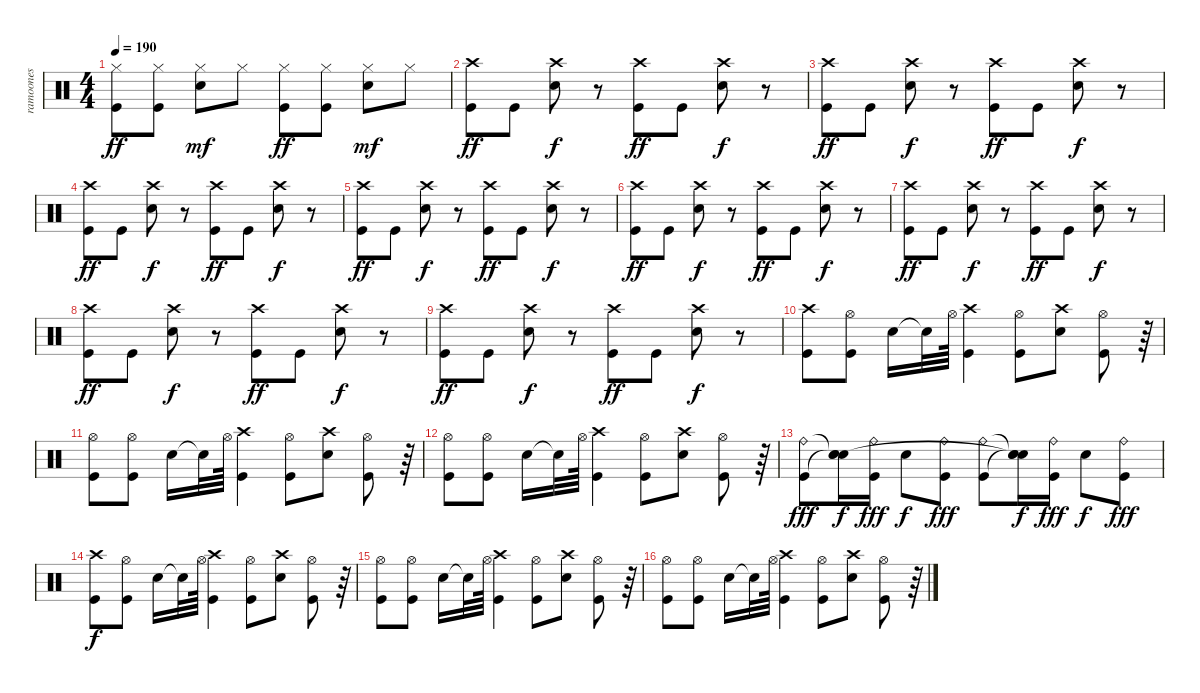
\track ("ramoones" "ramoones") {instrument percussion}
\staff {score}
\articulation defaults
\ts (4 4)
\tempo 190
\clef neutral
\ks c
("Hi-Hat (closed)" "Kick (hit)").8{dy ff} ("Hi-Hat (closed)" "Kick (hit)").8 ("Hi-Hat (closed)" "Electric Snare (hit)").8{dy mf} "Hi-Hat (closed)".8 ("Hi-Hat (closed)" "Kick (hit)").8{dy ff} ("Hi-Hat (closed)" "Kick (hit)").8 ("Hi-Hat (closed)" "Electric Snare (hit)").8{dy mf} "Hi-Hat (closed)".8 |
("Crash high (hit)" "Kick (hit)").8{dy ff} "Kick (hit)".8 ("Crash high (hit)" "Electric Snare (hit)").8{dy f} r.8 ("Crash high (hit)" "Kick (hit)").8{dy ff} "Kick (hit)".8 ("Crash high (hit)" "Electric Snare (hit)").8{dy f} r.8 |
("Crash high (hit)" "Kick (hit)").8{dy ff} "Kick (hit)".8 ("Crash high (hit)" "Electric Snare (hit)").8{dy f} r.8 ("Crash high (hit)" "Kick (hit)").8{dy ff} "Kick (hit)".8 ("Crash high (hit)" "Electric Snare (hit)").8{dy f} r.8 |
("Crash high (hit)" "Kick (hit)").8{dy ff} "Kick (hit)".8 ("Crash high (hit)" "Electric Snare (hit)").8{dy f} r.8 ("Crash high (hit)" "Kick (hit)").8{dy ff} "Kick (hit)".8 ("Crash high (hit)" "Electric Snare (hit)").8{dy f} r.8 |
("Crash high (hit)" "Kick (hit)").8{dy ff} "Kick (hit)".8 ("Crash high (hit)" "Electric Snare (hit)").8{dy f} r.8 ("Crash high (hit)" "Kick (hit)").8{dy ff} "Kick (hit)".8 ("Crash high (hit)" "Electric Snare (hit)").8{dy f} r.8 |
("Crash high (hit)" "Kick (hit)").8{dy ff} "Kick (hit)".8 ("Crash high (hit)" "Electric Snare (hit)").8{dy f} r.8 ("Crash high (hit)" "Kick (hit)").8{dy ff} "Kick (hit)".8 ("Crash high (hit)" "Electric Snare (hit)").8{dy f} r.8 |
("Crash high (hit)" "Kick (hit)").8{dy ff} "Kick (hit)".8 ("Crash high (hit)" "Electric Snare (hit)").8{dy f} r.8 ("Crash high (hit)" "Kick (hit)").8{dy ff} "Kick (hit)".8 ("Crash high (hit)" "Electric Snare (hit)").8{dy f} r.8 |
("Crash high (hit)" "Kick (hit)").8{dy ff} "Kick (hit)".8 ("Crash high (hit)" "Electric Snare (hit)").8{dy f} r.8 ("Crash high (hit)" "Kick (hit)").8{dy ff} "Kick (hit)".8 ("Crash high (hit)" "Electric Snare (hit)").8{dy f} r.8 |
("Crash high (hit)" "Kick (hit)").8{dy ff} "Kick (hit)".8 ("Crash high (hit)" "Electric Snare (hit)").8{dy f} r.8 ("Crash high (hit)" "Kick (hit)").8{dy ff} "Kick (hit)".8 ("Crash high (hit)" "Electric Snare (hit)").8{dy f} r.8 |
("Crash high (hit)" "Kick (hit)").8 ("Hi-Hat (open)" "Kick (hit)").8 "Electric Snare (hit)".16 "Snare (hit)"{t}.32 "Hi-Hat (open)".64 ("Crash high (hit)" "Kick (hit)").4 ("Hi-Hat (open)" "Kick (hit)").8 ("Crash high (hit)" "Electric Snare (hit)").8 ("Hi-Hat (open)" "Kick (hit)").8 r.64 |
("Hi-Hat (open)" "Kick (hit)").8 ("Hi-Hat (open)" "Kick (hit)").8 "Electric Snare (hit)".16 "Snare (hit)"{t}.32 "Hi-Hat (open)".64 ("Crash high (hit)" "Kick (hit)").4 ("Hi-Hat (open)" "Kick (hit)").8 ("Crash high (hit)" "Electric Snare (hit)").8 ("Hi-Hat (open)" "Kick (hit)").8 r.64 |
("Hi-Hat (open)" "Kick (hit)").8 ("Hi-Hat (open)" "Kick (hit)").8 "Electric Snare (hit)".16 "Snare (hit)"{t}.32 "Hi-Hat (open)".64 ("Crash high (hit)" "Kick (hit)").4 ("Hi-Hat (open)" "Kick (hit)").8 ("Crash high (hit)" "Electric Snare (hit)").8 ("Hi-Hat (open)" "Kick (hit)").8 r.64 |
("Ride (bell)" "Kick (hit)").8{dy fff} ("Snare (hit)"{t} "Snare (hit)"{t} "Snare (hit)").16{dy f} ("Ride (bell)" "Kick (hit)").16{dy fff} "Electric Snare (hit)".8{dy f} ("Ride (bell)" "Kick (hit)").8{dy fff} ("Ride (bell)" "Kick (hit)").8 ("Snare (hit)"{t} "Snare (hit)"{t} "Snare (hit)"{t}).16{dy f} ("Ride (bell)" "Kick (hit)").16{dy fff} "Electric Snare (hit)".8{dy f} ("Ride (bell)" "Kick (hit)").8{dy fff} |
("Crash high (hit)" "Kick (hit)").8{dy f} ("Hi-Hat (open)" "Kick (hit)").8 "Electric Snare (hit)".16 "Snare (hit)"{t}.32 "Hi-Hat (open)".64 ("Crash high (hit)" "Kick (hit)").4 ("Hi-Hat (open)" "Kick (hit)").8 ("Crash high (hit)" "Electric Snare (hit)").8 ("Hi-Hat (open)" "Kick (hit)").8 r.64 |
("Hi-Hat (open)" "Kick (hit)").8 ("Hi-Hat (open)" "Kick (hit)").8 "Electric Snare (hit)".16 "Snare (hit)"{t}.32 "Hi-Hat (open)".64 ("Crash high (hit)" "Kick (hit)").4 ("Hi-Hat (open)" "Kick (hit)").8 ("Crash high (hit)" "Electric Snare (hit)").8 ("Hi-Hat (open)" "Kick (hit)").8 r.64 |
("Hi-Hat (open)" "Kick (hit)").8 ("Hi-Hat (open)" "Kick (hit)").8 "Electric Snare (hit)".16 "Snare (hit)"{t}.32 "Hi-Hat (open)".64 ("Crash high (hit)" "Kick (hit)").4 ("Hi-Hat (open)" "Kick (hit)").8 ("Crash high (hit)" "Electric Snare (hit)").8 ("Hi-Hat (open)" "Kick (hit)").8 r.64
